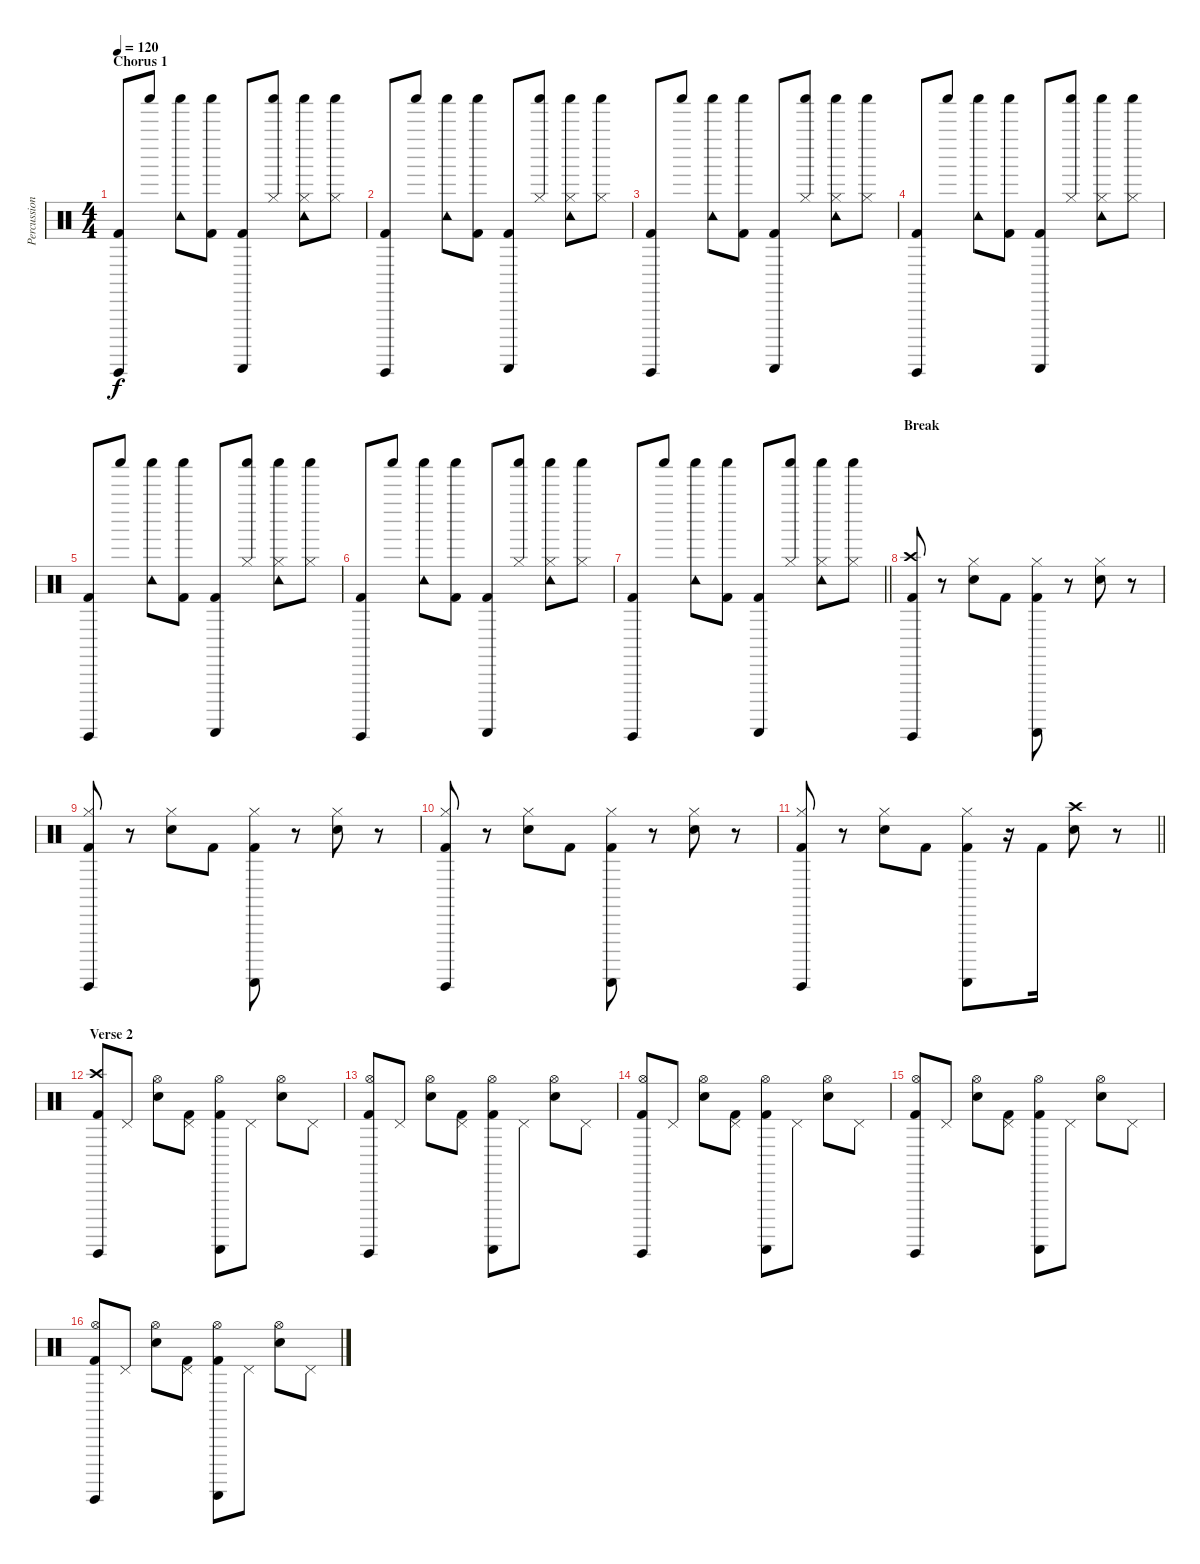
\track ("Percussion" "Percussion") {instrument percussion}
\staff {score}
\articulation defaults
\ts (4 4)
\section ("" "Chorus 1")
\tempo 120
\clef neutral
\ks c
("Guiro (hit)" "Kick (hit) 2").8{dy f} "Shaker (hit)".8 ("Shaker (hit)" "Tambourine (hit)").8 ("Shaker (hit)" "Kick (hit) 2").8 ("Guiro (scrap-return)" "Kick (hit) 2").8 ("Shaker (hit)" "Hi-Hat (closed)").8 ("Shaker (hit)" "Hi-Hat (closed)" "Tambourine (hit)").8 ("Shaker (hit)" "Hi-Hat (closed)").8 |
("Guiro (hit)" "Kick (hit) 2").8 "Shaker (hit)".8 ("Shaker (hit)" "Tambourine (hit)").8 ("Shaker (hit)" "Kick (hit) 2").8 ("Guiro (scrap-return)" "Kick (hit) 2").8 ("Shaker (hit)" "Hi-Hat (closed)").8 ("Shaker (hit)" "Hi-Hat (closed)" "Tambourine (hit)").8 ("Shaker (hit)" "Hi-Hat (closed)").8 |
("Guiro (hit)" "Kick (hit) 2").8 "Shaker (hit)".8 ("Shaker (hit)" "Tambourine (hit)").8 ("Shaker (hit)" "Kick (hit) 2").8 ("Guiro (scrap-return)" "Kick (hit) 2").8 ("Shaker (hit)" "Hi-Hat (closed)").8 ("Shaker (hit)" "Hi-Hat (closed)" "Tambourine (hit)").8 ("Shaker (hit)" "Hi-Hat (closed)").8 |
("Guiro (hit)" "Kick (hit) 2").8 "Shaker (hit)".8 ("Shaker (hit)" "Tambourine (hit)").8 ("Shaker (hit)" "Kick (hit) 2").8 ("Guiro (scrap-return)" "Kick (hit) 2").8 ("Shaker (hit)" "Hi-Hat (closed)").8 ("Shaker (hit)" "Hi-Hat (closed)" "Tambourine (hit)").8 ("Shaker (hit)" "Hi-Hat (closed)").8 |
("Guiro (hit)" "Kick (hit) 2").8 "Shaker (hit)".8 ("Shaker (hit)" "Tambourine (hit)").8 ("Shaker (hit)" "Kick (hit) 2").8 ("Guiro (scrap-return)" "Kick (hit) 2").8 ("Shaker (hit)" "Hi-Hat (closed)").8 ("Shaker (hit)" "Hi-Hat (closed)" "Tambourine (hit)").8 ("Shaker (hit)" "Hi-Hat (closed)").8 |
("Guiro (hit)" "Kick (hit) 2").8 "Shaker (hit)".8 ("Shaker (hit)" "Tambourine (hit)").8 ("Shaker (hit)" "Kick (hit) 2").8 ("Guiro (scrap-return)" "Kick (hit) 2").8 ("Shaker (hit)" "Hi-Hat (closed)").8 ("Shaker (hit)" "Hi-Hat (closed)" "Tambourine (hit)").8 ("Shaker (hit)" "Hi-Hat (closed)").8 |
\barLineRight lightlight
("Guiro (hit)" "Kick (hit) 2").8 "Shaker (hit)".8 ("Shaker (hit)" "Tambourine (hit)").8 ("Shaker (hit)" "Kick (hit) 2").8 ("Guiro (scrap-return)" "Kick (hit) 2").8 ("Shaker (hit)" "Hi-Hat (closed)").8 ("Shaker (hit)" "Hi-Hat (closed)" "Tambourine (hit)").8 ("Shaker (hit)" "Hi-Hat (closed)").8 |
\section ("" "Break")
("Guiro (hit)" "Crash high (hit)" "Kick (hit) 2").8 r.8 ("Hi-Hat (closed)" "Electric Snare (hit)").8 "Kick (hit) 2".8 ("Guiro (scrap-return)" "Hi-Hat (closed)" "Kick (hit) 2").8 r.8 ("Hi-Hat (closed)" "Electric Snare (hit)").8 r.8 |
("Guiro (hit)" "Hi-Hat (closed)" "Kick (hit) 2").8 r.8 ("Hi-Hat (closed)" "Electric Snare (hit)").8 "Kick (hit) 2".8 ("Guiro (scrap-return)" "Hi-Hat (closed)" "Kick (hit) 2").8 r.8 ("Hi-Hat (closed)" "Electric Snare (hit)").8 r.8 |
("Guiro (hit)" "Hi-Hat (closed)" "Kick (hit) 2").8 r.8 ("Hi-Hat (closed)" "Electric Snare (hit)").8 "Kick (hit) 2".8 ("Guiro (scrap-return)" "Hi-Hat (closed)" "Kick (hit) 2").8 r.8 ("Hi-Hat (closed)" "Electric Snare (hit)").8 r.8 |
\barLineRight lightlight
("Guiro (hit)" "Hi-Hat (closed)" "Kick (hit) 2").8 r.8 ("Hi-Hat (closed)" "Electric Snare (hit)").8 "Kick (hit) 2".8 ("Guiro (scrap-return)" "Hi-Hat (closed)" "Kick (hit) 2").8 r.16 "Kick (hit) 2".16 ("Crash high (hit)" "Electric Snare (hit)").8 r.8 |
\section ("" "Verse 2")
("Guiro (hit)" "Crash high (hit)" "Kick (hit) 2").8 "Pedal Hi-Hat (hit)".8 ("Hi-Hat (open)" "Electric Snare (hit)").8 ("Pedal Hi-Hat (hit)" "Kick (hit) 2").8 ("Guiro (scrap-return)" "Hi-Hat (open)" "Kick (hit) 2").8 "Pedal Hi-Hat (hit)".8 ("Hi-Hat (open)" "Electric Snare (hit)").8 "Pedal Hi-Hat (hit)".8 |
("Guiro (hit)" "Hi-Hat (open)" "Kick (hit) 2").8 "Pedal Hi-Hat (hit)".8 ("Hi-Hat (open)" "Electric Snare (hit)").8 ("Pedal Hi-Hat (hit)" "Kick (hit) 2").8 ("Guiro (scrap-return)" "Hi-Hat (open)" "Kick (hit) 2").8 "Pedal Hi-Hat (hit)".8 ("Hi-Hat (open)" "Electric Snare (hit)").8 "Pedal Hi-Hat (hit)".8 |
("Guiro (hit)" "Hi-Hat (open)" "Kick (hit) 2").8 "Pedal Hi-Hat (hit)".8 ("Hi-Hat (open)" "Electric Snare (hit)").8 ("Pedal Hi-Hat (hit)" "Kick (hit) 2").8 ("Guiro (scrap-return)" "Hi-Hat (open)" "Kick (hit) 2").8 "Pedal Hi-Hat (hit)".8 ("Hi-Hat (open)" "Electric Snare (hit)").8 "Pedal Hi-Hat (hit)".8 |
("Guiro (hit)" "Hi-Hat (open)" "Kick (hit) 2").8 "Pedal Hi-Hat (hit)".8 ("Hi-Hat (open)" "Electric Snare (hit)").8 ("Pedal Hi-Hat (hit)" "Kick (hit) 2").8 ("Guiro (scrap-return)" "Hi-Hat (open)" "Kick (hit) 2").8 "Pedal Hi-Hat (hit)".8 ("Hi-Hat (open)" "Electric Snare (hit)").8 "Pedal Hi-Hat (hit)".8 |
("Guiro (hit)" "Hi-Hat (open)" "Kick (hit) 2").8 "Pedal Hi-Hat (hit)".8 ("Hi-Hat (open)" "Electric Snare (hit)").8 ("Pedal Hi-Hat (hit)" "Kick (hit) 2").8 ("Guiro (scrap-return)" "Hi-Hat (open)" "Kick (hit) 2").8 "Pedal Hi-Hat (hit)".8 ("Hi-Hat (open)" "Electric Snare (hit)").8 "Pedal Hi-Hat (hit)".8
